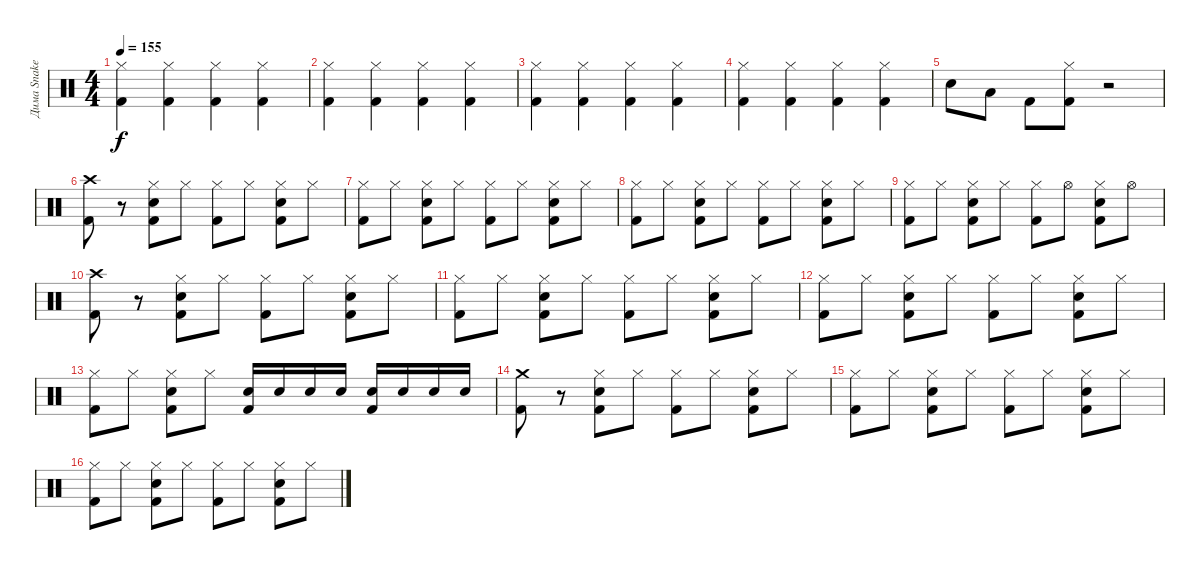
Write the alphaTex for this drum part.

\track ("Дима Snake Хакимов" "Дима Snake") {instrument percussion}
\staff {score}
\articulation defaults
\ts (4 4)
\tempo 155
\clef neutral
\ks c
("Hi-Hat (closed)" "Kick (hit) 2").4{dy f} ("Hi-Hat (closed)" "Kick (hit) 2").4 ("Hi-Hat (closed)" "Kick (hit) 2").4 ("Hi-Hat (closed)" "Kick (hit) 2").4 |
("Hi-Hat (closed)" "Kick (hit) 2").4 ("Hi-Hat (closed)" "Kick (hit) 2").4 ("Hi-Hat (closed)" "Kick (hit) 2").4 ("Hi-Hat (closed)" "Kick (hit) 2").4 |
("Hi-Hat (closed)" "Kick (hit) 2").4 ("Hi-Hat (closed)" "Kick (hit) 2").4 ("Hi-Hat (closed)" "Kick (hit) 2").4 ("Hi-Hat (closed)" "Kick (hit) 2").4 |
("Hi-Hat (closed)" "Kick (hit) 2").4 ("Hi-Hat (closed)" "Kick (hit) 2").4 ("Hi-Hat (closed)" "Kick (hit) 2").4 ("Hi-Hat (closed)" "Kick (hit) 2").4 |
"Snare (hit) 2".8 "Low Tom (hit)".8 "Kick (hit) 2".8 ("Hi-Hat (closed)" "Kick (hit) 2").8 r.2 |
("Crash high (hit)" "Kick (hit) 2").8 r.8 ("Hi-Hat (closed)" "Snare (hit) 2" "Kick (hit) 2").8 "Hi-Hat (closed)".8 ("Hi-Hat (closed)" "Kick (hit) 2").8 "Hi-Hat (closed)".8 ("Hi-Hat (closed)" "Snare (hit) 2" "Kick (hit) 2").8 "Hi-Hat (closed)".8 |
("Hi-Hat (closed)" "Kick (hit) 2").8 "Hi-Hat (closed)".8 ("Hi-Hat (closed)" "Snare (hit) 2" "Kick (hit) 2").8 "Hi-Hat (closed)".8 ("Hi-Hat (closed)" "Kick (hit) 2").8 "Hi-Hat (closed)".8 ("Hi-Hat (closed)" "Snare (hit) 2" "Kick (hit) 2").8 "Hi-Hat (closed)".8 |
("Hi-Hat (closed)" "Kick (hit) 2").8 "Hi-Hat (closed)".8 ("Hi-Hat (closed)" "Snare (hit) 2" "Kick (hit) 2").8 "Hi-Hat (closed)".8 ("Hi-Hat (closed)" "Kick (hit) 2").8 "Hi-Hat (closed)".8 ("Hi-Hat (closed)" "Snare (hit) 2" "Kick (hit) 2").8 "Hi-Hat (closed)".8 |
("Hi-Hat (closed)" "Kick (hit) 2").8 "Hi-Hat (closed)".8 ("Hi-Hat (closed)" "Snare (hit) 2" "Kick (hit) 2").8 "Hi-Hat (closed)".8 ("Hi-Hat (closed)" "Kick (hit) 2").8 "Hi-Hat (open)".8 ("Hi-Hat (closed)" "Snare (hit) 2" "Kick (hit) 2").8 "Hi-Hat (open)".8 |
("Crash high (hit)" "Kick (hit) 2").8 r.8 ("Hi-Hat (closed)" "Snare (hit) 2" "Kick (hit) 2").8 "Hi-Hat (closed)".8 ("Hi-Hat (closed)" "Kick (hit) 2").8 "Hi-Hat (closed)".8 ("Hi-Hat (closed)" "Snare (hit) 2" "Kick (hit) 2").8 "Hi-Hat (closed)".8 |
("Hi-Hat (closed)" "Kick (hit) 2").8 "Hi-Hat (closed)".8 ("Hi-Hat (closed)" "Snare (hit) 2" "Kick (hit) 2").8 "Hi-Hat (closed)".8 ("Hi-Hat (closed)" "Kick (hit) 2").8 "Hi-Hat (closed)".8 ("Hi-Hat (closed)" "Snare (hit) 2" "Kick (hit) 2").8 "Hi-Hat (closed)".8 |
("Hi-Hat (closed)" "Kick (hit) 2").8 "Hi-Hat (closed)".8 ("Hi-Hat (closed)" "Snare (hit) 2" "Kick (hit) 2").8 "Hi-Hat (closed)".8 ("Hi-Hat (closed)" "Kick (hit) 2").8 "Hi-Hat (closed)".8 ("Hi-Hat (closed)" "Snare (hit) 2" "Kick (hit) 2").8 "Hi-Hat (closed)".8 |
("Hi-Hat (closed)" "Kick (hit) 2").8 "Hi-Hat (closed)".8 ("Hi-Hat (closed)" "Snare (hit) 2" "Kick (hit) 2").8 "Hi-Hat (closed)".8 ("Snare (hit) 2" "Kick (hit) 2").16 "Snare (hit) 2".16 "Snare (hit) 2".16 "Snare (hit) 2".16 ("Snare (hit) 2" "Kick (hit) 2").16 "Snare (hit) 2".16 "Snare (hit) 2".16 "Snare (hit) 2".16 |
("Crash medium (hit)" "Kick (hit) 2").8 r.8 ("Hi-Hat (closed)" "Snare (hit) 2" "Kick (hit) 2").8 "Hi-Hat (closed)".8 ("Hi-Hat (closed)" "Kick (hit) 2").8 "Hi-Hat (closed)".8 ("Hi-Hat (closed)" "Snare (hit) 2" "Kick (hit) 2").8 "Hi-Hat (closed)".8 |
("Hi-Hat (closed)" "Kick (hit) 2").8 "Hi-Hat (closed)".8 ("Hi-Hat (closed)" "Snare (hit) 2" "Kick (hit) 2").8 "Hi-Hat (closed)".8 ("Hi-Hat (closed)" "Kick (hit) 2").8 "Hi-Hat (closed)".8 ("Hi-Hat (closed)" "Snare (hit) 2" "Kick (hit) 2").8 "Hi-Hat (closed)".8 |
("Hi-Hat (closed)" "Kick (hit) 2").8 "Hi-Hat (closed)".8 ("Hi-Hat (closed)" "Snare (hit) 2" "Kick (hit) 2").8 "Hi-Hat (closed)".8 ("Hi-Hat (closed)" "Kick (hit) 2").8 "Hi-Hat (closed)".8 ("Hi-Hat (closed)" "Snare (hit) 2" "Kick (hit) 2").8 "Hi-Hat (closed)".8
